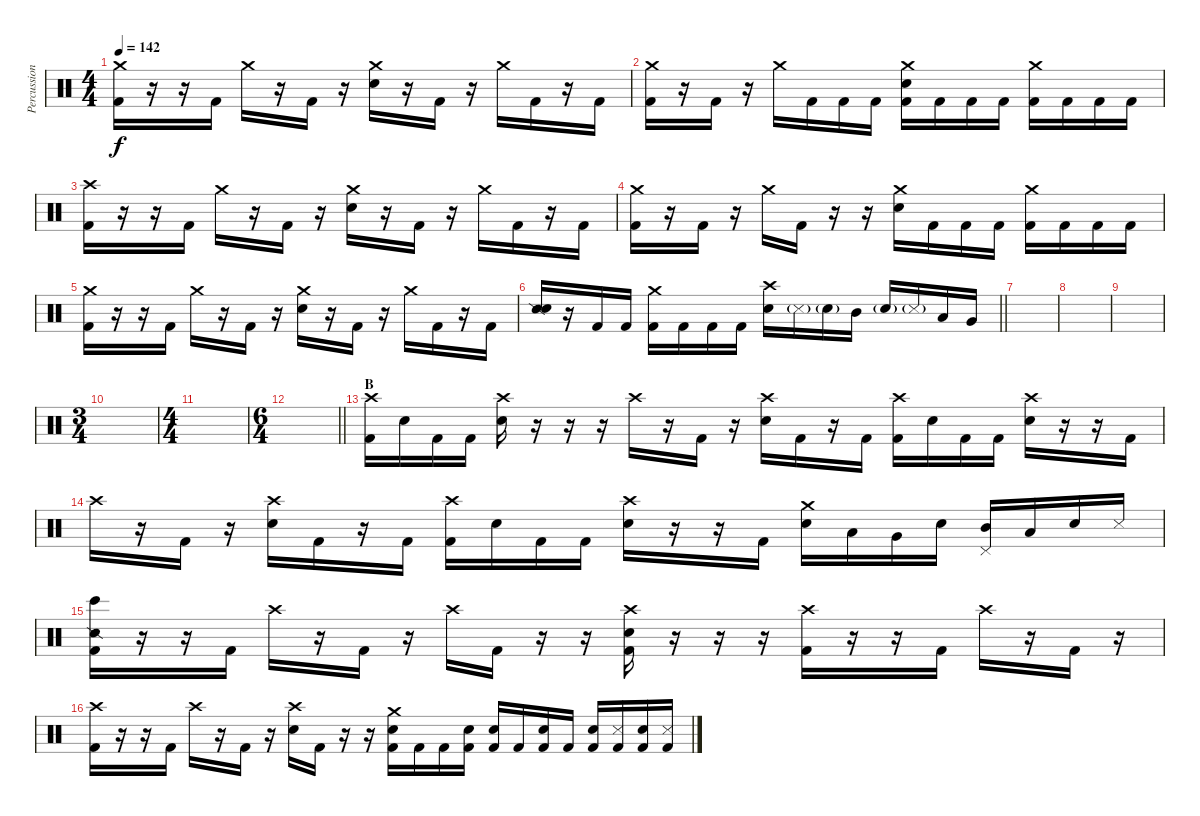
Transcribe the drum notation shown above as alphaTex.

\track ("Percussion" "Percussion") {instrument percussion}
\staff {score}
\articulation defaults
\ts (4 4)
\tempo 142
\clef neutral
\ks c
("Crash medium (hit)" "Kick (hit) 2").16{dy f} r.16 r.16 "Kick (hit) 2".16 "Crash medium (hit)".16 r.16 "Kick (hit) 2".16 r.16 ("Crash medium (hit)" "Snare (hit) 2").16 r.16 "Kick (hit) 2".16 r.16 "Crash medium (hit)".16 "Kick (hit) 2".16 r.16 "Kick (hit) 2".16 |
("Crash medium (hit)" "Kick (hit) 2").16 r.16 "Kick (hit) 2".16 r.16 "Crash medium (hit)".16 "Kick (hit) 2".16 "Kick (hit) 2".16 "Kick (hit) 2".16 ("Crash medium (hit)" "Snare (hit) 2" "Kick (hit) 2").16 "Kick (hit) 2".16 "Kick (hit) 2".16 "Kick (hit) 2".16 ("Crash medium (hit)" "Kick (hit) 2").16 "Kick (hit) 2".16 "Kick (hit) 2".16 "Kick (hit) 2".16 |
("Crash high (hit)" "Kick (hit) 2").16 r.16 r.16 "Kick (hit) 2".16 "Crash medium (hit)".16 r.16 "Kick (hit) 2".16 r.16 ("Crash medium (hit)" "Snare (hit) 2").16 r.16 "Kick (hit) 2".16 r.16 "Crash medium (hit)".16 "Kick (hit) 2".16 r.16 "Kick (hit) 2".16 |
("Crash medium (hit)" "Kick (hit) 2").16 r.16 "Kick (hit) 2".16 r.16 "Crash medium (hit)".16 "Kick (hit) 2".16 r.16 r.16 ("Crash medium (hit)" "Snare (hit) 2").16 "Kick (hit) 2".16 "Kick (hit) 2".16 "Kick (hit) 2".16 ("Crash medium (hit)" "Kick (hit) 2").16 "Kick (hit) 2".16 "Kick (hit) 2".16 "Kick (hit) 2".16 |
("Crash medium (hit)" "Kick (hit) 2").16 r.16 r.16 "Kick (hit) 2".16 "Crash medium (hit)".16 r.16 "Kick (hit) 2".16 r.16 ("Crash medium (hit)" "Snare (hit) 2").16 r.16 "Kick (hit) 2".16 r.16 "Crash medium (hit)".16 "Kick (hit) 2".16 r.16 "Kick (hit) 2".16 |
\barLineRight lightlight
("Snare (side stick) 2" "Snare (hit) 2").16 r.16 "Kick (hit) 2".16 "Kick (hit) 2".16 ("Crash medium (hit)" "Kick (hit) 2").16 "Kick (hit) 2".16 "Kick (hit) 2".16 "Kick (hit) 2".16 ("Crash high (hit)" "Snare (hit) 2").16 "Metronome (hit)"{g}.16 "Snare (hit) 2"{g}.16 "Mid Tom (hit)".16 "Snare (hit) 2"{g}.16 "Metronome (hit)"{g}.16 "Low Tom (hit)".16 "Very Low Tom (hit)".16 |
|
|
|
\ts (3 4)
|
\ts (4 4)
|
\ts (6 4)
\barLineRight lightlight
|
\section ("" "B")
("Crash high (hit)" "Kick (hit) 2").16 "Snare (hit) 2".16 "Kick (hit) 2".16 "Kick (hit) 2".16 ("Crash high (hit)" "Snare (hit) 2").16 r.16 r.16 r.16 "Crash high (hit)".16 r.16 "Kick (hit) 2".16 r.16 ("Crash high (hit)" "Snare (hit) 2").16 "Kick (hit) 2".16 r.16 "Kick (hit) 2".16 ("Crash high (hit)" "Kick (hit) 2").16 "Snare (hit) 2".16 "Kick (hit) 2".16 "Kick (hit) 2".16 ("Crash high (hit)" "Snare (hit) 2").16 r.16 r.16 "Kick (hit) 2".16 |
"Crash high (hit)".16 r.16 "Kick (hit) 2".16 r.16 ("Crash high (hit)" "Snare (hit) 2").16 "Kick (hit) 2".16 r.16 "Kick (hit) 2".16 ("Crash high (hit)" "Kick (hit) 2").16 "Snare (hit) 2".16 "Kick (hit) 2".16 "Kick (hit) 2".16 ("Crash high (hit)" "Snare (hit) 2").16 r.16 r.16 "Kick (hit) 2".16 ("Crash medium (hit)" "Snare (hit) 2").16 "Low Tom (hit)".16 "Very Low Tom (hit)".16 "Snare (hit) 2".16 ("Pedal Hi-Hat (hit)" "Mid Tom (hit)").16 "Low Tom (hit)".16 "Snare (hit) 2".16 "Metronome (hit)".16 |
("Snare (side stick) 2" "Bongo High (hit)" "Kick (hit) 2").16 r.16 r.16 "Kick (hit) 2".16 "Crash high (hit)".16 r.16 "Kick (hit) 2".16 r.16 "Crash high (hit)".16 "Kick (hit) 2".16 r.16 r.16 ("Crash high (hit)" "Snare (hit) 2" "Kick (hit) 2").16 r.16 r.16 r.16 ("Crash high (hit)" "Kick (hit) 2").16 r.16 r.16 "Kick (hit) 2".16 "Crash high (hit)".16 r.16 "Kick (hit) 2".16 r.16 |
("Crash high (hit)" "Kick (hit) 2").16 r.16 r.16 "Kick (hit) 2".16 "Crash high (hit)".16 r.16 "Kick (hit) 2".16 r.16 ("Crash high (hit)" "Snare (hit) 2").16 "Kick (hit) 2".16 r.16 r.16 ("Crash medium (hit)" "Snare (hit) 2" "Kick (hit) 2").16 "Kick (hit) 2".16 "Kick (hit) 2".16 ("Snare (hit) 2" "Kick (hit) 2").16 ("Snare (hit)" "Kick (hit) 2").16 "Kick (hit) 2".16 ("Snare (hit) 2" "Kick (hit) 2").16 "Kick (hit) 2".16 ("Snare (hit) 2" "Kick (hit) 2").16 ("Metronome (hit)" "Kick (hit) 2").16 ("Snare (hit) 2" "Kick (hit) 2").16 ("Metronome (hit)" "Kick (hit) 2").16
